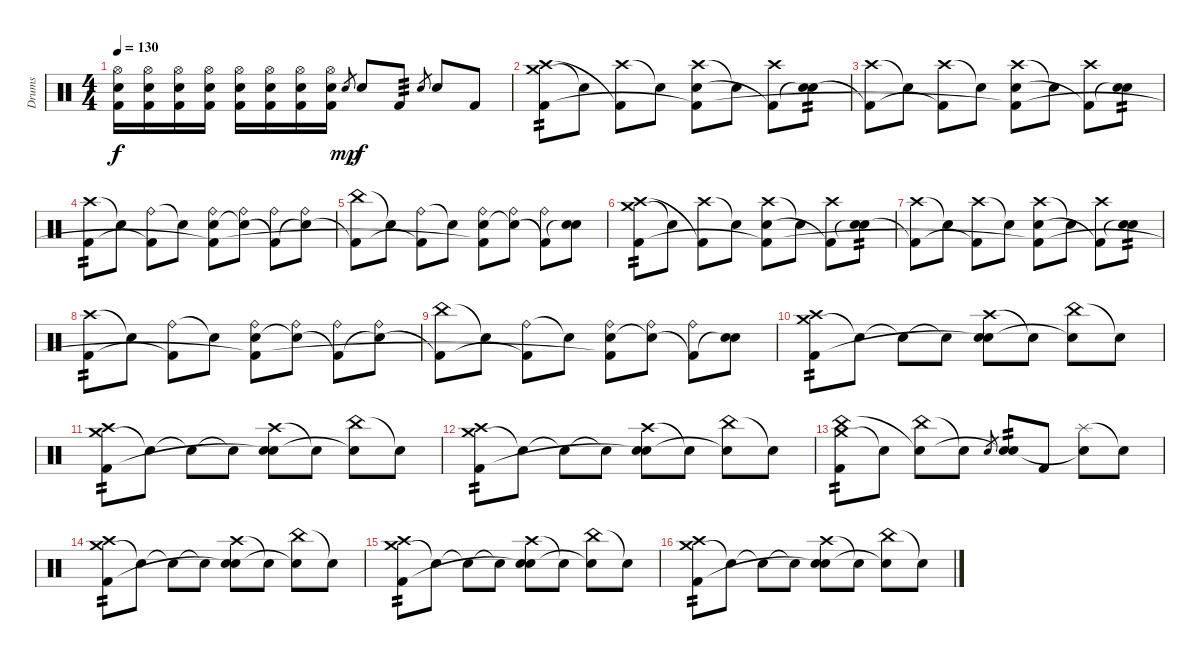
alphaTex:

\track ("Drums" "Drums") {instrument percussion}
\staff {score}
\articulation defaults
\ts (4 4)
\tempo 130
\clef neutral
\ks c
("Hi-Hat (open)" "Electric Snare (hit)" "Kick (hit) 2").16{dy f} ("Hi-Hat (open)" "Electric Snare (hit)" "Kick (hit) 2").16 ("Hi-Hat (open)" "Electric Snare (hit)" "Kick (hit) 2").16 ("Hi-Hat (open)" "Electric Snare (hit)" "Kick (hit) 2").16 ("Hi-Hat (open)" "Electric Snare (hit)" "Kick (hit) 2").16 ("Hi-Hat (open)" "Electric Snare (hit)" "Kick (hit) 2").16 ("Hi-Hat (open)" "Electric Snare (hit)" "Kick (hit) 2").16 ("Hi-Hat (open)" "Electric Snare (hit)" "Kick (hit) 2").16 "Electric Snare (hit)".8{gr dy mp} "Electric Snare (hit)".8{dy f} "Kick (hit) 2".8{tp 3} "Electric Snare (hit)".8{gr} "Electric Snare (hit)".8 "Kick (hit) 2".8 |
("Crash medium (hit)" "Crash high (hit)" "Kick (hit) 2").8{tp 2} "Snare (hit)"{t}.8 ("Crash high (hit)" "Kick (hit) 2"{t}).8 "Snare (hit)"{t}.8 ("Crash high (hit)" "Electric Snare (hit)" "Kick (hit) 2"{t}).8 "Snare (hit)"{t}.8 ("Crash high (hit)" "Kick (hit) 2"{t}).8 ("Electric Snare (hit)" "Snare (hit)"{t}).8{tp 2} |
("Crash high (hit)" "Kick (hit) 2"{t}).8 "Snare (hit)"{t}.8 ("Crash high (hit)" "Kick (hit) 2"{t}).8 "Snare (hit)"{t}.8 ("Crash high (hit)" "Electric Snare (hit)" "Kick (hit) 2"{t}).8 "Snare (hit)"{t}.8 ("Crash high (hit)" "Kick (hit) 2"{t}).8 ("Electric Snare (hit)" "Snare (hit)"{t}).8{tp 2} |
("Crash high (hit)" "Kick (hit) 2").8{tp 2} "Snare (hit)"{t}.8 ("Ride (bell)" "Kick (hit) 2"{t}).8 "Snare (hit)"{t}.8 ("Ride (bell)" "Electric Snare (hit)" "Kick (hit) 2"{t}).8 ("Ride (bell)" "Snare (hit)"{t}).8 ("Ride (bell)" "Kick (hit) 2"{t}).8 ("Ride (bell)" "Snare (hit)"{t}).8 |
("China (hit)" "Kick (hit) 2"{t}).8 "Snare (hit)"{t}.8 ("Ride (bell)" "Kick (hit) 2"{t}).8 "Snare (hit)"{t}.8 ("Ride (bell)" "Electric Snare (hit)" "Kick (hit) 2"{t}).8 ("Ride (bell)" "Snare (hit)"{t}).8 ("Ride (bell)" "Kick (hit) 2"{t}).8 ("Electric Snare (hit)" "Snare (hit)"{t}).8 |
("Crash medium (hit)" "Crash high (hit)" "Kick (hit) 2").8{tp 2} "Snare (hit)"{t}.8 ("Crash high (hit)" "Kick (hit) 2"{t}).8 "Snare (hit)"{t}.8 ("Crash high (hit)" "Electric Snare (hit)" "Kick (hit) 2"{t}).8 "Snare (hit)"{t}.8 ("Crash high (hit)" "Kick (hit) 2"{t}).8 ("Electric Snare (hit)" "Snare (hit)"{t}).8{tp 2} |
("Crash high (hit)" "Kick (hit) 2"{t}).8 "Snare (hit)"{t}.8 ("Crash high (hit)" "Kick (hit) 2"{t}).8 "Snare (hit)"{t}.8 ("Crash high (hit)" "Electric Snare (hit)" "Kick (hit) 2"{t}).8 "Snare (hit)"{t}.8 ("Crash high (hit)" "Kick (hit) 2"{t}).8 ("Electric Snare (hit)" "Snare (hit)"{t}).8{tp 2} |
("Crash high (hit)" "Kick (hit) 2").8{tp 2} "Snare (hit)"{t}.8 ("Ride (bell)" "Kick (hit) 2"{t}).8 "Snare (hit)"{t}.8 ("Ride (bell)" "Electric Snare (hit)" "Kick (hit) 2"{t}).8 ("Ride (bell)" "Snare (hit)"{t}).8 ("Ride (bell)" "Kick (hit) 2"{t}).8 ("Ride (bell)" "Snare (hit)"{t}).8 |
("China (hit)" "Kick (hit) 2"{t}).8 "Snare (hit)"{t}.8 ("Ride (bell)" "Kick (hit) 2"{t}).8 "Snare (hit)"{t}.8 ("Ride (bell)" "Electric Snare (hit)" "Kick (hit) 2"{t}).8 ("Ride (bell)" "Snare (hit)"{t}).8 ("Ride (bell)" "Kick (hit) 2"{t}).8 ("Electric Snare (hit)" "Snare (hit)"{t}).8 |
("Crash medium (hit)" "Crash high (hit)" "Kick (hit) 2").8{tp 2} "Snare (hit)"{t}.8 "Snare (hit)"{t}.8 "Snare (hit)"{t}.8 ("Crash high (hit)" "Electric Snare (hit)" "Snare (hit)"{t}).8 "Snare (hit)"{t}.8 ("China (hit)" "Snare (hit)"{t}).8 "Snare (hit)"{t}.8 |
("Crash medium (hit)" "Crash high (hit)" "Kick (hit) 2").8{tp 2} "Snare (hit)"{t}.8 "Snare (hit)"{t}.8 "Snare (hit)"{t}.8 ("Crash high (hit)" "Electric Snare (hit)" "Snare (hit)"{t}).8 "Snare (hit)"{t}.8 ("China (hit)" "Snare (hit)"{t}).8 "Snare (hit)"{t}.8 |
("Crash medium (hit)" "Crash high (hit)" "Kick (hit) 2").8{tp 2} "Snare (hit)"{t}.8 "Snare (hit)"{t}.8 "Snare (hit)"{t}.8 ("Crash high (hit)" "Electric Snare (hit)" "Snare (hit)"{t}).8 "Snare (hit)"{t}.8 ("China (hit)" "Snare (hit)"{t}).8 "Snare (hit)"{t}.8 |
("Crash medium (hit)" "China (hit)" "Kick (hit) 2").8{tp 2} "Snare (hit)"{t}.8 ("China (hit)" "Snare (hit)"{t}).8 "Snare (hit)"{t}.8 "Electric Snare (hit)".8{gr} ("Electric Snare (hit)" "Snare (hit)"{t}).8{tp 2} "Kick (hit) 2".8 ("Splash (hit)" "Snare (hit)"{t}).8 "Snare (hit)"{t}.8 |
("Crash medium (hit)" "Crash high (hit)" "Kick (hit) 2").8{tp 2} "Snare (hit)"{t}.8 "Snare (hit)"{t}.8 "Snare (hit)"{t}.8 ("Crash high (hit)" "Electric Snare (hit)" "Snare (hit)"{t}).8 "Snare (hit)"{t}.8 ("China (hit)" "Snare (hit)"{t}).8 "Snare (hit)"{t}.8 |
("Crash medium (hit)" "Crash high (hit)" "Kick (hit) 2").8{tp 2} "Snare (hit)"{t}.8 "Snare (hit)"{t}.8 "Snare (hit)"{t}.8 ("Crash high (hit)" "Electric Snare (hit)" "Snare (hit)"{t}).8 "Snare (hit)"{t}.8 ("China (hit)" "Snare (hit)"{t}).8 "Snare (hit)"{t}.8 |
("Crash medium (hit)" "Crash high (hit)" "Kick (hit) 2").8{tp 2} "Snare (hit)"{t}.8 "Snare (hit)"{t}.8 "Snare (hit)"{t}.8 ("Crash high (hit)" "Electric Snare (hit)" "Snare (hit)"{t}).8 "Snare (hit)"{t}.8 ("China (hit)" "Snare (hit)"{t}).8 "Snare (hit)"{t}.8
